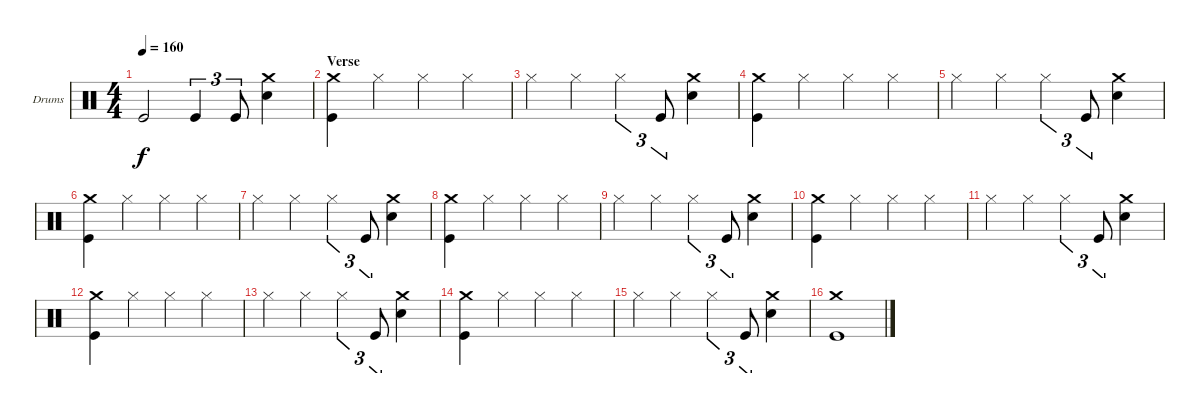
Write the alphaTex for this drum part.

\bracketExtendMode groupsimilarinstruments
\firstSystemTrackNameOrientation horizontal
\otherSystemsTrackNameOrientation horizontal
\track ("Drumkit" "Drums") {instrument percussion}
\staff {score}
\articulation defaults
\ts (4 4)
\tempo 160
\clef neutral
\ks c "Kick (hit)".2{dy f} "Kick (hit)".4{tu (3 2)} "Kick (hit)".8{tu (3 2)}
("Crash medium (hit)" "Snare (hit) 2").4 |
\section ("" "Verse")
("Crash medium (hit)" "Kick (hit)").4 "Hi-Hat (closed)".4 "Hi-Hat (closed)".4 "Hi-Hat (closed)".4 |
"Hi-Hat (closed)".4 "Hi-Hat (closed)".4 "Hi-Hat (closed)".4{tu (3 2)} "Kick (hit)".8{tu (3 2)} ("Crash medium (hit)" "Snare (hit) 2").4 |
("Crash medium (hit)" "Kick (hit)").4 "Hi-Hat (closed)".4 "Hi-Hat (closed)".4 "Hi-Hat (closed)".4 |
"Hi-Hat (closed)".4 "Hi-Hat (closed)".4 "Hi-Hat (closed)".4{tu (3 2)} "Kick (hit)".8{tu (3 2)} ("Crash medium (hit)" "Snare (hit) 2").4 |
("Crash medium (hit)" "Kick (hit)").4 "Hi-Hat (closed)".4 "Hi-Hat (closed)".4 "Hi-Hat (closed)".4 |
"Hi-Hat (closed)".4 "Hi-Hat (closed)".4 "Hi-Hat (closed)".4{tu (3 2)} "Kick (hit)".8{tu (3 2)} ("Crash medium (hit)" "Snare (hit) 2").4 |
("Crash medium (hit)" "Kick (hit)").4 "Hi-Hat (closed)".4 "Hi-Hat (closed)".4 "Hi-Hat (closed)".4 |
"Hi-Hat (closed)".4 "Hi-Hat (closed)".4 "Hi-Hat (closed)".4{tu (3 2)} "Kick (hit)".8{tu (3 2)} ("Crash medium (hit)" "Snare (hit) 2").4 |
("Crash medium (hit)" "Kick (hit)").4 "Hi-Hat (closed)".4 "Hi-Hat (closed)".4 "Hi-Hat (closed)".4 |
"Hi-Hat (closed)".4 "Hi-Hat (closed)".4 "Hi-Hat (closed)".4{tu (3 2)} "Kick (hit)".8{tu (3 2)} ("Crash medium (hit)" "Snare (hit) 2").4 |
("Crash medium (hit)" "Kick (hit)").4 "Hi-Hat (closed)".4 "Hi-Hat (closed)".4 "Hi-Hat (closed)".4 |
"Hi-Hat (closed)".4 "Hi-Hat (closed)".4 "Hi-Hat (closed)".4{tu (3 2)} "Kick (hit)".8{tu (3 2)} ("Crash medium (hit)" "Snare (hit) 2").4 |
("Crash medium (hit)" "Kick (hit)").4 "Hi-Hat (closed)".4 "Hi-Hat (closed)".4 "Hi-Hat (closed)".4 |
"Hi-Hat (closed)".4 "Hi-Hat (closed)".4 "Hi-Hat (closed)".4{tu (3 2)} "Kick (hit)".8{tu (3 2)} ("Crash medium (hit)" "Snare (hit) 2").4 |
("Crash medium (hit)" "Kick (hit)").1
